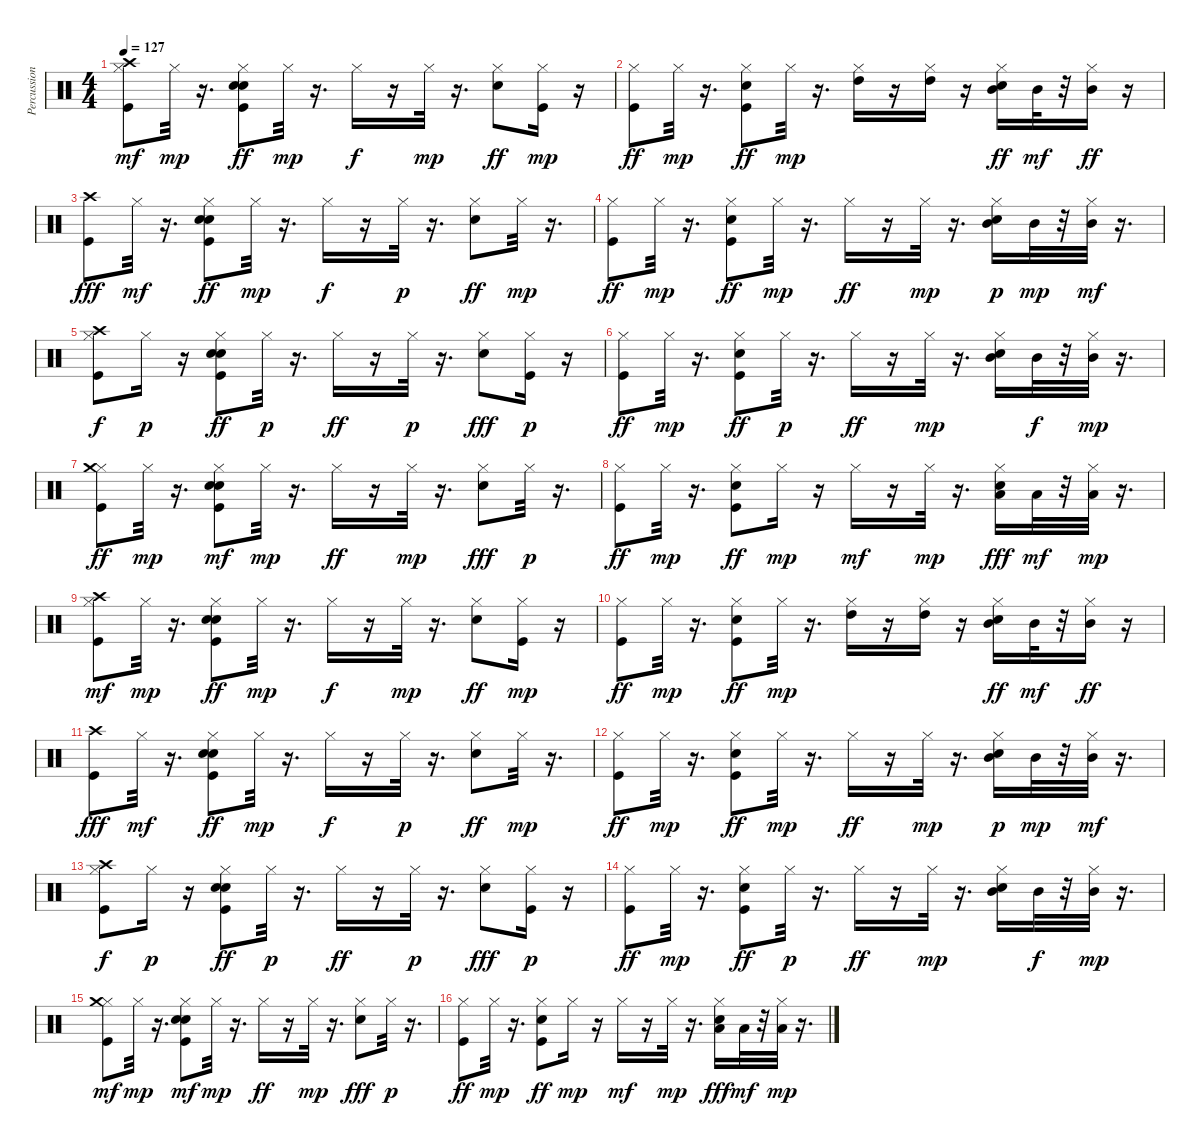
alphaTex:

\track ("Percussions (drums + hihats)" "Percussion") {instrument percussion}
\staff {score}
\articulation defaults
\ts (4 4)
\tempo 127
\clef neutral
\ks c
("Kick (hit)" "Hi-Hat (closed)" "Crash high (hit)").8{dy mf} "Hi-Hat (closed)".32{dy mp} r.16{d} ("Kick (hit)" "Snare (hit) 2" "Electric Snare (hit)" "Hi-Hat (closed)").8{dy ff} "Hi-Hat (closed)".32{dy mp} r.16{d} "Hi-Hat (closed)".16{dy f} r.16 "Hi-Hat (closed)".32{dy mp} r.16{d} ("Snare (hit) 2" "Hi-Hat (closed)").8{dy ff} ("Kick (hit)" "Hi-Hat (closed)").16{dy mp} r.16 |
("Kick (hit)" "Hi-Hat (closed)").8{dy ff} "Hi-Hat (closed)".32{dy mp} r.16{d} ("Kick (hit)" "Snare (hit) 2" "Hi-Hat (closed)").8{dy ff} "Hi-Hat (closed)".32{dy mp} r.16{d} ("Hi-Hat (closed)" "High Tom (hit)").16 r.16 ("Hi-Hat (closed)" "High Tom (hit)").16 r.16 ("Snare (hit) 2" "Hi-Hat (closed)" "Mid Tom (hit)").16{dy ff} "Mid Tom (hit)".32{dy mf} r.32 ("Hi-Hat (closed)" "Mid Tom (hit)").16{dy ff} r.16 |
("Kick (hit)" "Crash high (hit)").8{dy fff} "Hi-Hat (closed)".32{dy mf} r.16{d} ("Kick (hit)" "Snare (hit) 2" "Electric Snare (hit)" "Hi-Hat (closed)").8{dy ff} "Hi-Hat (closed)".32{dy mp} r.16{d} "Hi-Hat (closed)".16{dy f} r.16 "Hi-Hat (closed)".32{dy p} r.16{d} ("Snare (hit) 2" "Hi-Hat (closed)").8{dy ff} "Hi-Hat (closed)".32{dy mp} r.16{d} |
("Kick (hit)" "Hi-Hat (closed)").8{dy ff} "Hi-Hat (closed)".32{dy mp} r.16{d} ("Kick (hit)" "Snare (hit) 2" "Hi-Hat (closed)").8{dy ff} "Hi-Hat (closed)".32{dy mp} r.16{d} "Hi-Hat (closed)".16{dy ff} r.16 "Hi-Hat (closed)".32{dy mp} r.16{d} ("Snare (hit) 2" "Hi-Hat (closed)" "Mid Tom (hit)").16{dy p} "Mid Tom (hit)".32{dy mp} r.32 ("Hi-Hat (closed)" "Mid Tom (hit)").32{dy mf} r.16{d} |
("Kick (hit)" "Hi-Hat (closed)" "Crash high (hit)").8{dy f} "Hi-Hat (closed)".16{dy p} r.16 ("Kick (hit)" "Snare (hit) 2" "Electric Snare (hit)" "Hi-Hat (closed)").8{dy ff} "Hi-Hat (closed)".32{dy p} r.16{d} "Hi-Hat (closed)".16{dy ff} r.16 "Hi-Hat (closed)".32{dy p} r.16{d} ("Snare (hit) 2" "Hi-Hat (closed)").8{dy fff} ("Kick (hit)" "Hi-Hat (closed)").16{dy p} r.16 |
("Kick (hit)" "Hi-Hat (closed)").8{dy ff} "Hi-Hat (closed)".32{dy mp} r.16{d} ("Kick (hit)" "Snare (hit) 2" "Hi-Hat (closed)").8{dy ff} "Hi-Hat (closed)".32{dy p} r.16{d} "Hi-Hat (closed)".16{dy ff} r.16 "Hi-Hat (closed)".32{dy mp} r.16{d} ("Snare (hit) 2" "Hi-Hat (closed)" "Mid Tom (hit)").16 "Mid Tom (hit)".32{dy f} r.32 ("Hi-Hat (closed)" "Mid Tom (hit)").32{dy mp} r.16{d} |
("Kick (hit)" "Hi-Hat (closed)" "Crash medium (hit)").8{dy ff} "Hi-Hat (closed)".32{dy mp} r.16{d} ("Kick (hit)" "Snare (hit) 2" "Electric Snare (hit)" "Hi-Hat (closed)").8{dy mf} "Hi-Hat (closed)".32{dy mp} r.16{d} "Hi-Hat (closed)".16{dy ff} r.16 "Hi-Hat (closed)".32{dy mp} r.16{d} ("Snare (hit) 2" "Hi-Hat (closed)").8{dy fff} "Hi-Hat (closed)".32{dy p} r.16{d} |
("Kick (hit)" "Hi-Hat (closed)").8{dy ff} "Hi-Hat (closed)".32{dy mp} r.16{d} ("Kick (hit)" "Snare (hit) 2" "Hi-Hat (closed)").8{dy ff} "Hi-Hat (closed)".16{dy mp} r.16 "Hi-Hat (closed)".16{dy mf} r.16 "Hi-Hat (closed)".32{dy mp} r.16{d} ("Snare (hit) 2" "Hi-Hat (closed)" "Low Tom (hit)").16{dy fff} "Low Tom (hit)".32{dy mf} r.32 ("Hi-Hat (closed)" "Low Tom (hit)").32{dy mp} r.16{d} |
("Kick (hit)" "Hi-Hat (closed)" "Crash high (hit)").8{dy mf} "Hi-Hat (closed)".32{dy mp} r.16{d} ("Kick (hit)" "Snare (hit) 2" "Electric Snare (hit)" "Hi-Hat (closed)").8{dy ff} "Hi-Hat (closed)".32{dy mp} r.16{d} "Hi-Hat (closed)".16{dy f} r.16 "Hi-Hat (closed)".32{dy mp} r.16{d} ("Snare (hit) 2" "Hi-Hat (closed)").8{dy ff} ("Kick (hit)" "Hi-Hat (closed)").16{dy mp} r.16 |
("Kick (hit)" "Hi-Hat (closed)").8{dy ff} "Hi-Hat (closed)".32{dy mp} r.16{d} ("Kick (hit)" "Snare (hit) 2" "Hi-Hat (closed)").8{dy ff} "Hi-Hat (closed)".32{dy mp} r.16{d} ("Hi-Hat (closed)" "High Tom (hit)").16 r.16 ("Hi-Hat (closed)" "High Tom (hit)").16 r.16 ("Snare (hit) 2" "Hi-Hat (closed)" "Mid Tom (hit)").16{dy ff} "Mid Tom (hit)".32{dy mf} r.32 ("Hi-Hat (closed)" "Mid Tom (hit)").16{dy ff} r.16 |
("Kick (hit)" "Crash high (hit)").8{dy fff} "Hi-Hat (closed)".32{dy mf} r.16{d} ("Kick (hit)" "Snare (hit) 2" "Electric Snare (hit)" "Hi-Hat (closed)").8{dy ff} "Hi-Hat (closed)".32{dy mp} r.16{d} "Hi-Hat (closed)".16{dy f} r.16 "Hi-Hat (closed)".32{dy p} r.16{d} ("Snare (hit) 2" "Hi-Hat (closed)").8{dy ff} "Hi-Hat (closed)".32{dy mp} r.16{d} |
("Kick (hit)" "Hi-Hat (closed)").8{dy ff} "Hi-Hat (closed)".32{dy mp} r.16{d} ("Kick (hit)" "Snare (hit) 2" "Hi-Hat (closed)").8{dy ff} "Hi-Hat (closed)".32{dy mp} r.16{d} "Hi-Hat (closed)".16{dy ff} r.16 "Hi-Hat (closed)".32{dy mp} r.16{d} ("Snare (hit) 2" "Hi-Hat (closed)" "Mid Tom (hit)").16{dy p} "Mid Tom (hit)".32{dy mp} r.32 ("Hi-Hat (closed)" "Mid Tom (hit)").32{dy mf} r.16{d} |
("Kick (hit)" "Hi-Hat (closed)" "Crash high (hit)").8{dy f volume 16} "Hi-Hat (closed)".16{dy p volume 15} r.16 ("Kick (hit)" "Snare (hit) 2" "Electric Snare (hit)" "Hi-Hat (closed)").8{dy ff volume 15} "Hi-Hat (closed)".32{dy p volume 15} r.16{d} "Hi-Hat (closed)".16{dy ff volume 15} r.16 "Hi-Hat (closed)".32{dy p volume 14} r.16{d} ("Snare (hit) 2" "Hi-Hat (closed)").8{dy fff volume 14} ("Kick (hit)" "Hi-Hat (closed)").16{dy p volume 14} r.16 |
("Kick (hit)" "Hi-Hat (closed)").8{dy ff volume 14} "Hi-Hat (closed)".32{dy mp volume 14} r.16{d} ("Kick (hit)" "Snare (hit) 2" "Hi-Hat (closed)").8{dy ff volume 14} "Hi-Hat (closed)".32{dy p volume 14} r.16{d} "Hi-Hat (closed)".16{dy ff volume 14} r.16 "Hi-Hat (closed)".32{dy mp volume 14} r.16{d} ("Snare (hit) 2" "Hi-Hat (closed)" "Mid Tom (hit)").16{volume 14} "Mid Tom (hit)".32{dy f volume 14} r.32 ("Hi-Hat (closed)" "Mid Tom (hit)").32{dy mp volume 14} r.16{d} |
("Kick (hit)" "Hi-Hat (closed)" "Crash medium (hit)").8{dy mf volume 13} "Hi-Hat (closed)".32{dy mp volume 13} r.16{d} ("Kick (hit)" "Snare (hit) 2" "Electric Snare (hit)" "Hi-Hat (closed)").8{dy mf volume 13} "Hi-Hat (closed)".32{dy mp volume 13} r.16{d} "Hi-Hat (closed)".16{dy ff volume 13} r.16 "Hi-Hat (closed)".32{dy mp volume 13} r.16{d} ("Snare (hit) 2" "Hi-Hat (closed)").8{dy fff volume 13} "Hi-Hat (closed)".32{dy p volume 13} r.16{d} |
("Kick (hit)" "Hi-Hat (closed)").8{dy ff volume 12} "Hi-Hat (closed)".32{dy mp volume 12} r.16{d} ("Kick (hit)" "Snare (hit) 2" "Hi-Hat (closed)").8{dy ff volume 12} "Hi-Hat (closed)".16{dy mp volume 12} r.16 "Hi-Hat (closed)".16{dy mf volume 12} r.16 "Hi-Hat (closed)".32{dy mp volume 12} r.16{d} ("Snare (hit) 2" "Hi-Hat (closed)" "Low Tom (hit)").16{dy fff volume 11} "Low Tom (hit)".32{dy mf volume 11} r.32 ("Hi-Hat (closed)" "Low Tom (hit)").32{dy mp volume 11} r.16{d}
